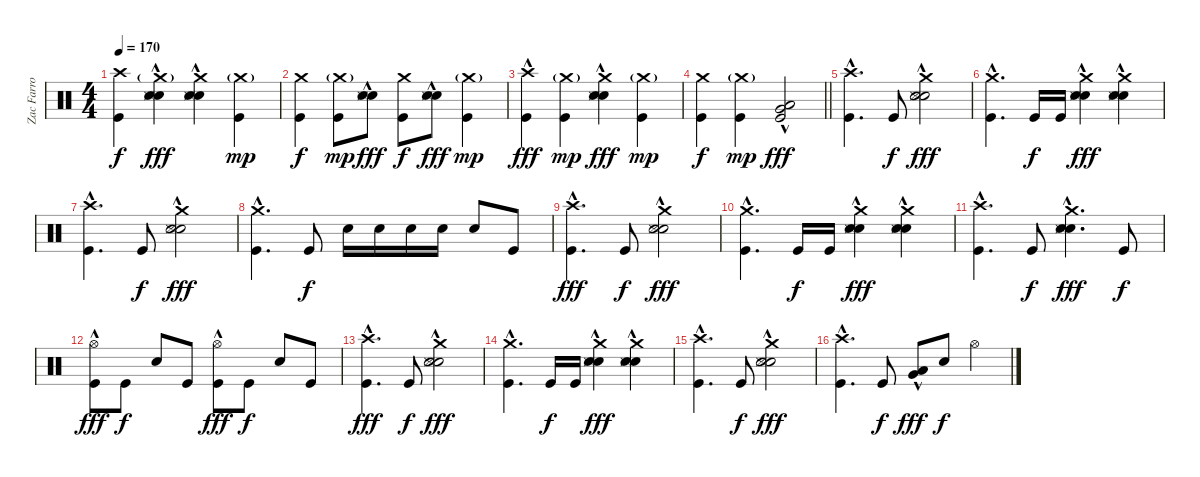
\track ("Zac Farro (Drums)" "Zac Farro ") {instrument percussion}
\staff {score}
\articulation defaults
\ts (4 4)
\tempo 170
\clef neutral
\ks c
("Crash high (hit)" "Kick (hit)").4{dy f} ("Crash medium (hit)"{g} "Snare (hit) 2"{hac} "Snare (side stick) 3"{hac} "Electric Snare (hit)"{hac}).4{dy fff} ("Crash medium (hit)"{hac} "Snare (hit) 2"{hac} "Snare (side stick) 3"{hac} "Electric Snare (hit)"{hac}).4 ("Crash medium (hit)"{g} "Kick (hit)").4{dy mp} |
("Crash medium (hit)" "Kick (hit)").4{dy f} ("Crash medium (hit)"{g} "Kick (hit)").8{dy mp} ("Snare (hit) 2"{hac} "Snare (side stick) 3"{hac} "Electric Snare (hit)"{hac}).8{dy fff} ("Crash medium (hit)" "Kick (hit)").8{dy f} ("Snare (hit) 2"{hac} "Snare (side stick) 3"{hac} "Electric Snare (hit)"{hac}).8{dy fff} ("Crash medium (hit)"{g} "Kick (hit)").4{dy mp} |
("Crash high (hit)"{hac} "Kick (hit)"{hac}).4{dy fff} ("Crash medium (hit)"{g} "Kick (hit)").4{dy mp} ("Crash medium (hit)"{hac} "Snare (hit) 2"{hac} "Snare (side stick) 3"{hac} "Electric Snare (hit)"{hac}).4{dy fff} ("Crash medium (hit)"{g} "Kick (hit)").4{dy mp} |
\barLineRight lightlight
("Crash medium (hit)" "Kick (hit)").4{dy f} ("Crash medium (hit)"{g} "Kick (hit)").4{dy mp} ("Very Low Tom (hit)"{hac} "Low Floor Tom (hit)"{hac} "Kick (hit)"{hac}).2{dy fff} |
("Crash high (hit)"{hac} "Kick (hit)"{hac}).4{d} "Kick (hit)".8{dy f} ("Crash medium (hit)"{hac} "Snare (hit) 2"{hac} "Snare (side stick) 3"{hac} "Electric Snare (hit)"{hac}).2{dy fff} |
("Crash medium (hit)"{hac} "Kick (hit)"{hac}).4{d} "Kick (hit)".16{dy f} "Kick (hit)".16 ("Crash medium (hit)"{hac} "Snare (hit) 2"{hac} "Snare (side stick) 3"{hac} "Electric Snare (hit)"{hac}).4{dy fff} ("Crash medium (hit)"{hac} "Snare (hit) 2"{hac} "Snare (side stick) 3"{hac} "Electric Snare (hit)"{hac}).4 |
("Crash high (hit)"{hac} "Kick (hit)"{hac}).4{d} "Kick (hit)".8{dy f} ("Crash medium (hit)"{hac} "Snare (hit) 2"{hac} "Snare (side stick) 3"{hac} "Electric Snare (hit)"{hac}).2{dy fff} |
("Crash medium (hit)"{hac} "Kick (hit)"{hac}).4{d} "Kick (hit)".8{dy f} "Electric Snare (hit)".16 "Electric Snare (hit)".16 "Electric Snare (hit)".16 "Electric Snare (hit)".16 "Electric Snare (hit)".8 "Kick (hit)".8 |
("Crash high (hit)"{hac} "Kick (hit)"{hac}).4{d dy fff} "Kick (hit)".8{dy f} ("Crash medium (hit)"{hac} "Snare (hit) 2"{hac} "Snare (side stick) 3"{hac} "Electric Snare (hit)"{hac}).2{dy fff} |
("Crash medium (hit)"{hac} "Kick (hit)"{hac}).4{d} "Kick (hit)".16{dy f} "Kick (hit)".16 ("Crash medium (hit)"{hac} "Snare (hit) 2"{hac} "Snare (side stick) 3"{hac} "Electric Snare (hit)"{hac}).4{dy fff} ("Crash medium (hit)"{hac} "Snare (hit) 2"{hac} "Snare (side stick) 3"{hac} "Electric Snare (hit)"{hac}).4 |
("Crash high (hit)"{hac} "Kick (hit)"{hac}).4{d} "Kick (hit)".8{dy f} ("Crash medium (hit)"{hac} "Snare (hit) 2"{hac} "Snare (side stick) 3"{hac} "Electric Snare (hit)"{hac}).4{d dy fff} "Kick (hit)".8{dy f} |
("Hi-Hat (open)"{hac} "Kick (hit)"{hac}).8{dy fff} "Kick (hit)".8{dy f} "Electric Snare (hit)".8 "Kick (hit)".8 ("Hi-Hat (open)"{hac} "Kick (hit)"{hac}).8{dy fff} "Kick (hit)".8{dy f} "Electric Snare (hit)".8 "Kick (hit)".8 |
("Crash high (hit)"{hac} "Kick (hit)"{hac}).4{d dy fff} "Kick (hit)".8{dy f} ("Crash medium (hit)"{hac} "Snare (hit) 2"{hac} "Snare (side stick) 3"{hac} "Electric Snare (hit)"{hac}).2{dy fff} |
("Crash medium (hit)"{hac} "Kick (hit)"{hac}).4{d} "Kick (hit)".16{dy f} "Kick (hit)".16 ("Crash medium (hit)"{hac} "Snare (hit) 2"{hac} "Snare (side stick) 3"{hac} "Electric Snare (hit)"{hac}).4{dy fff} ("Crash medium (hit)"{hac} "Snare (hit) 2"{hac} "Snare (side stick) 3"{hac} "Electric Snare (hit)"{hac}).4 |
("Crash high (hit)"{hac} "Kick (hit)"{hac}).4{d} "Kick (hit)".8{dy f} ("Crash medium (hit)"{hac} "Snare (hit) 2"{hac} "Snare (side stick) 3"{hac} "Electric Snare (hit)"{hac}).2{dy fff} |
("Crash high (hit)"{hac} "Kick (hit)"{hac}).4{d} "Kick (hit)".8{dy f} ("Very Low Tom (hit)"{hac} "Low Floor Tom (hit)"{hac}).8{dy fff} "Electric Snare (hit)".8{dy f} "Hi-Hat (open)".4
